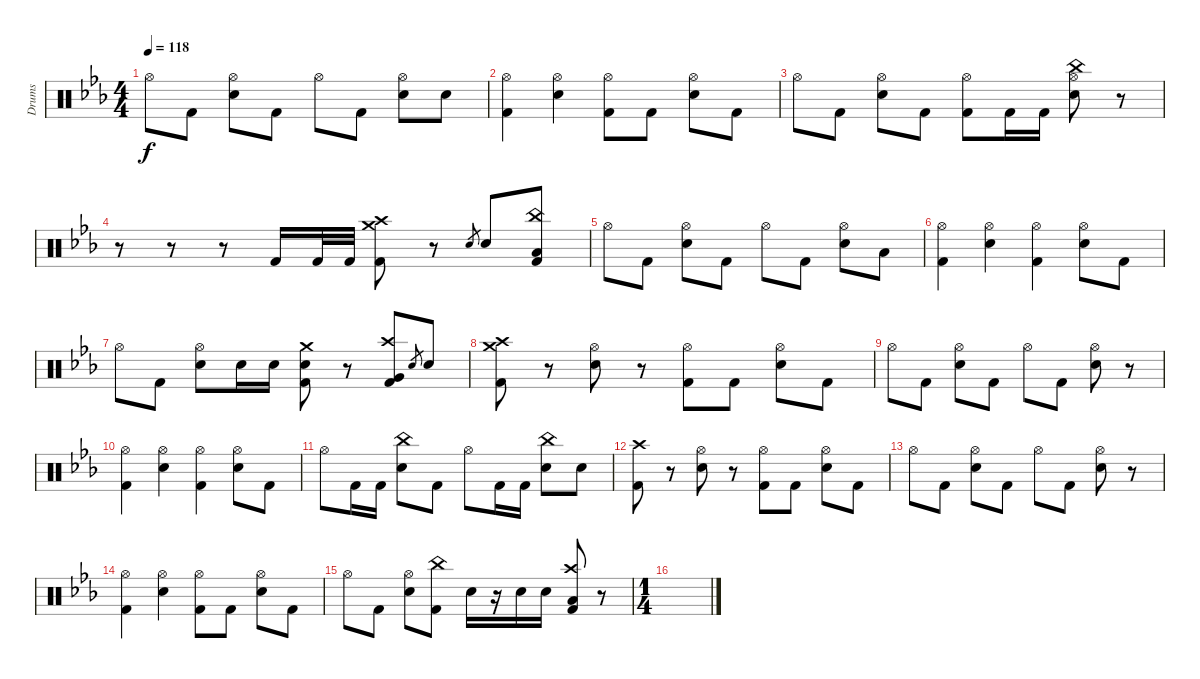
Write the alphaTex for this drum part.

\track ("Drums" "Drums") {instrument percussion}
\staff {score}
\articulation defaults
\ts (4 4)
\tempo 118
\clef neutral
\ks cminor "Hi-Hat (open)".8{dy f} "Kick (hit) 2".8
("Hi-Hat (open)" "Electric Snare (hit)").8 "Kick (hit) 2".8 "Hi-Hat (open)".8 "Kick (hit) 2".8 ("Hi-Hat (open)" "Electric Snare (hit)").8 "Electric Snare (hit)".8 |
("Kick (hit) 2" "Hi-Hat (open)").4 ("Hi-Hat (open)" "Electric Snare (hit)").4 ("Kick (hit) 2" "Hi-Hat (open)").8 "Kick (hit) 2".8 ("Hi-Hat (open)" "Electric Snare (hit)").8 "Kick (hit) 2".8 |
"Hi-Hat (open)".8 "Kick (hit) 2".8 ("Hi-Hat (open)" "Electric Snare (hit)").8 "Kick (hit) 2".8 ("Kick (hit) 2" "Hi-Hat (open)").8 "Kick (hit) 2".16 "Kick (hit) 2".16 ("Hi-Hat (open)" "Electric Snare (hit)" "China (hit)").8 r.8 |
r.8 r.8 r.8 "Kick (hit) 2".16 "Kick (hit) 2".32 "Kick (hit) 2".32 ("Kick (hit) 2" "Crash high (hit)" "Crash medium (hit)").8 r.8 "Electric Snare (hit)".8{gr} "Electric Snare (hit)".8 ("Kick (hit) 2" "Low Floor Tom (hit)" "China (hit)").8 |
"Hi-Hat (open)".8 "Kick (hit) 2".8 ("Hi-Hat (open)" "Electric Snare (hit)").8 "Kick (hit) 2".8 "Hi-Hat (open)".8 "Kick (hit) 2".8 ("Hi-Hat (open)" "Electric Snare (hit)").8 "Low Tom (hit)".8 |
("Kick (hit) 2" "Hi-Hat (open)").4 ("Hi-Hat (open)" "Electric Snare (hit)").4 ("Kick (hit) 2" "Hi-Hat (open)").4 ("Hi-Hat (open)" "Electric Snare (hit)").8 "Kick (hit) 2".8 |
"Hi-Hat (open)".8 "Kick (hit) 2".8 ("Hi-Hat (open)" "Electric Snare (hit)").8 "Electric Snare (hit)".16 "Electric Snare (hit)".16 ("Kick (hit) 2" "Electric Snare (hit)" "Crash medium (hit)").8 r.8 ("Kick (hit) 2" "Very Low Tom (hit)" "Crash high (hit)").8 "Electric Snare (hit)".8{gr} "Electric Snare (hit)".8 |
("Kick (hit) 2" "Crash high (hit)" "Crash medium (hit)").8 r.8 ("Hi-Hat (open)" "Electric Snare (hit)").8 r.8 ("Kick (hit) 2" "Hi-Hat (open)").8 "Kick (hit) 2".8 ("Hi-Hat (open)" "Electric Snare (hit)").8 "Kick (hit) 2".8 |
"Hi-Hat (open)".8 "Kick (hit) 2".8 ("Hi-Hat (open)" "Electric Snare (hit)").8 "Kick (hit) 2".8 "Hi-Hat (open)".8 "Kick (hit) 2".8 ("Hi-Hat (open)" "Electric Snare (hit)").8 r.8 |
("Kick (hit) 2" "Hi-Hat (open)").4 ("Hi-Hat (open)" "Electric Snare (hit)").4 ("Kick (hit) 2" "Hi-Hat (open)").4 ("Hi-Hat (open)" "Electric Snare (hit)").8 "Kick (hit) 2".8 |
"Hi-Hat (open)".8 "Kick (hit) 2".16 "Kick (hit) 2".16 ("Electric Snare (hit)" "China (hit)").8 "Kick (hit) 2".8 "Hi-Hat (open)".8 "Kick (hit) 2".16 "Kick (hit) 2".16 ("Electric Snare (hit)" "China (hit)").8 "Electric Snare (hit)".8 |
("Kick (hit) 2" "Crash high (hit)").8 r.8 ("Hi-Hat (open)" "Electric Snare (hit)").8 r.8 ("Kick (hit) 2" "Hi-Hat (open)").8 "Kick (hit) 2".8 ("Hi-Hat (open)" "Electric Snare (hit)").8 "Kick (hit) 2".8 |
"Hi-Hat (open)".8 "Kick (hit) 2".8 ("Hi-Hat (open)" "Electric Snare (hit)").8 "Kick (hit) 2".8 "Hi-Hat (open)".8 "Kick (hit) 2".8 ("Hi-Hat (open)" "Electric Snare (hit)").8 r.8 |
("Kick (hit) 2" "Hi-Hat (open)").4 ("Hi-Hat (open)" "Electric Snare (hit)").4 ("Kick (hit) 2" "Hi-Hat (open)").8 "Kick (hit) 2".8 ("Hi-Hat (open)" "Electric Snare (hit)").8 "Kick (hit) 2".8 |
"Hi-Hat (open)".8 "Kick (hit) 2".8 ("Hi-Hat (open)" "Electric Snare (hit)").8 ("Kick (hit) 2" "China (hit)").8 "Electric Snare (hit)".16 r.16 "Electric Snare (hit)".16 "Electric Snare (hit)".16 ("Kick (hit) 2" "Low Floor Tom (hit)" "Crash high (hit)").8 r.8 |
\ts (1 4)
